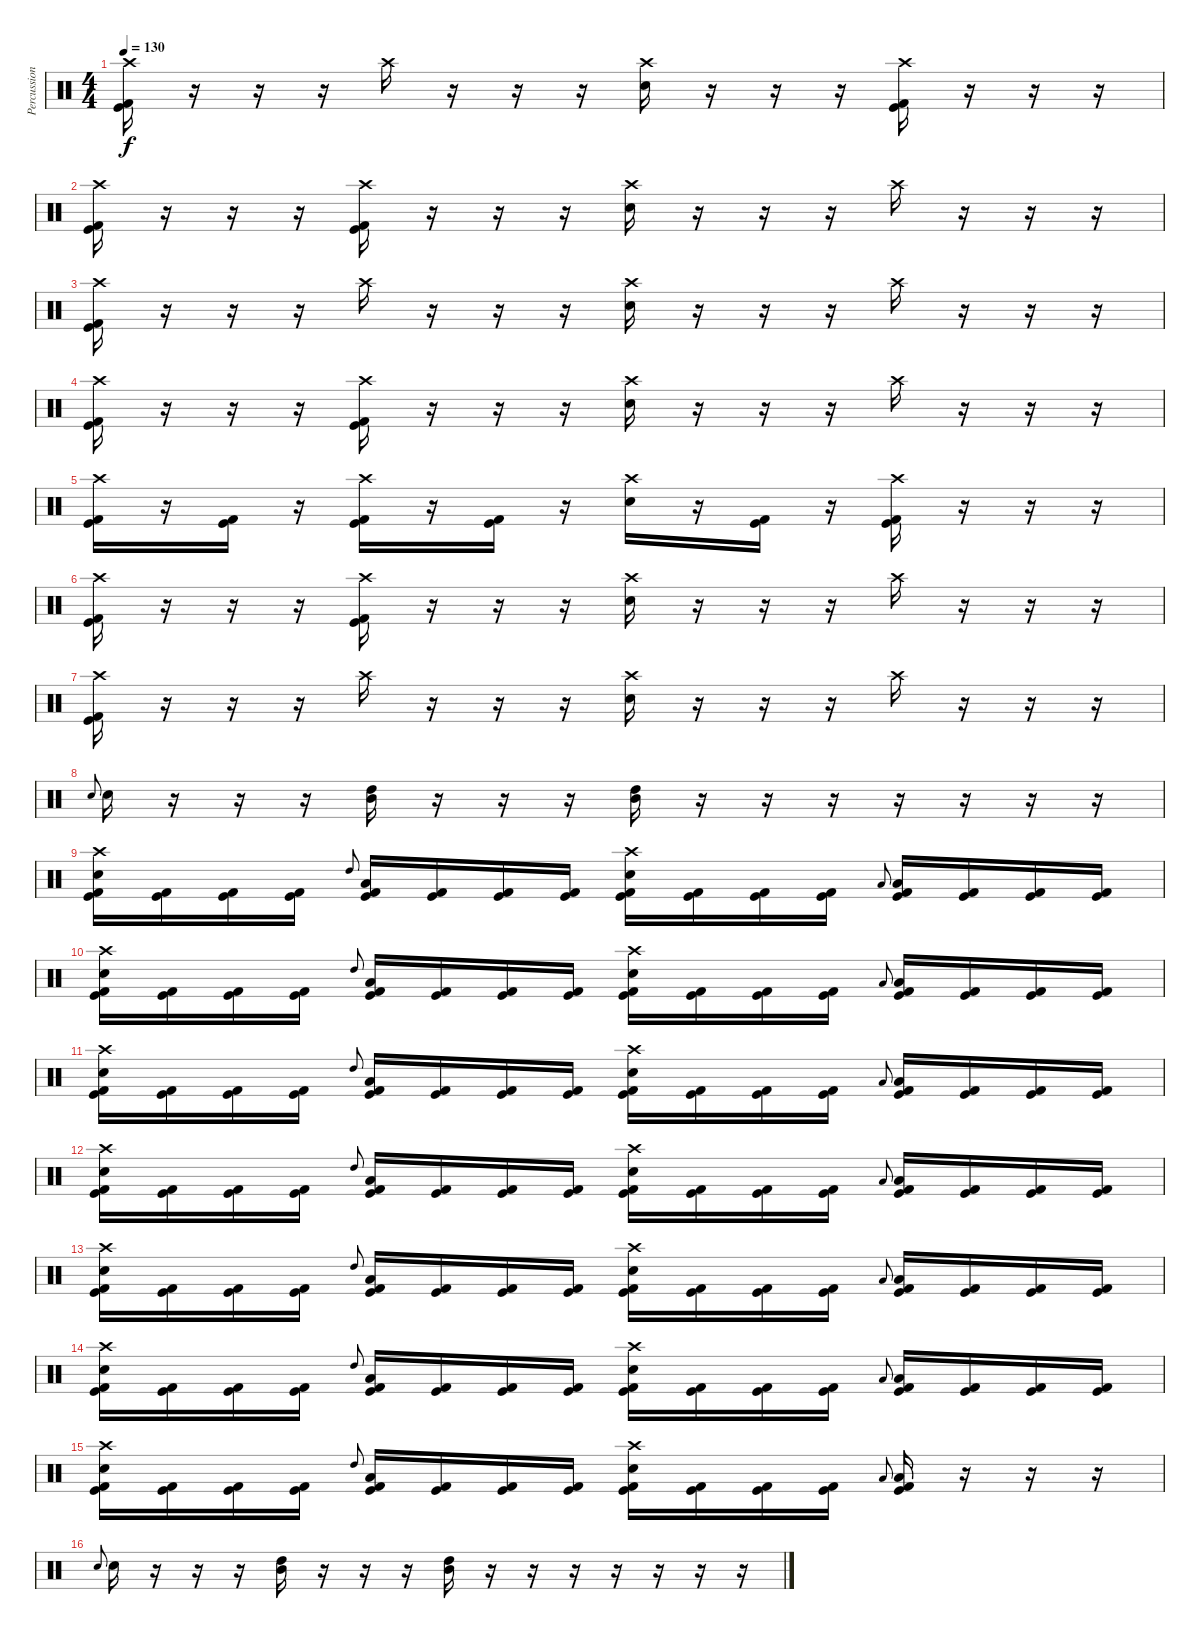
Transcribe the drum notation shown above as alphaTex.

\track ("Percussion" "Percussion") {instrument percussion}
\staff {score}
\articulation defaults
\ts (4 4)
\tempo 130
\clef neutral
\ks c
("Crash high (hit)" "Kick (hit)" "Kick (hit) 2").16{dy f} r.16 r.16 r.16 "Crash high (hit)".16 r.16 r.16 r.16 ("Crash high (hit)" "Electric Snare (hit)").16 r.16 r.16 r.16 ("Crash high (hit)" "Kick (hit)" "Kick (hit) 2").16 r.16 r.16 r.16 |
("Crash high (hit)" "Kick (hit)" "Kick (hit) 2").16 r.16 r.16 r.16 ("Crash high (hit)" "Kick (hit)" "Kick (hit) 2").16 r.16 r.16 r.16 ("Crash high (hit)" "Electric Snare (hit)").16 r.16 r.16 r.16 "Crash high (hit)".16 r.16 r.16 r.16 |
("Crash high (hit)" "Kick (hit)" "Kick (hit) 2").16 r.16 r.16 r.16 "Crash high (hit)".16 r.16 r.16 r.16 ("Crash high (hit)" "Electric Snare (hit)").16 r.16 r.16 r.16 "Crash high (hit)".16 r.16 r.16 r.16 |
("Crash high (hit)" "Kick (hit)" "Kick (hit) 2").16 r.16 r.16 r.16 ("Crash high (hit)" "Kick (hit)" "Kick (hit) 2").16 r.16 r.16 r.16 ("Crash high (hit)" "Electric Snare (hit)").16 r.16 r.16 r.16 "Crash high (hit)".16 r.16 r.16 r.16 |
("Crash high (hit)" "Kick (hit)" "Kick (hit) 2").16 r.16 ("Kick (hit)" "Kick (hit) 2").16 r.16 ("Crash high (hit)" "Kick (hit)" "Kick (hit) 2").16 r.16 ("Kick (hit)" "Kick (hit) 2").16 r.16 ("Crash high (hit)" "Electric Snare (hit)").16 r.16 ("Kick (hit)" "Kick (hit) 2").16 r.16 ("Crash high (hit)" "Kick (hit)" "Kick (hit) 2").16 r.16 r.16 r.16 |
("Crash high (hit)" "Kick (hit)" "Kick (hit) 2").16 r.16 r.16 r.16 ("Crash high (hit)" "Kick (hit)" "Kick (hit) 2").16 r.16 r.16 r.16 ("Crash high (hit)" "Electric Snare (hit)").16 r.16 r.16 r.16 "Crash high (hit)".16 r.16 r.16 r.16 |
("Crash high (hit)" "Kick (hit)" "Kick (hit) 2").16 r.16 r.16 r.16 "Crash high (hit)".16 r.16 r.16 r.16 ("Crash high (hit)" "Electric Snare (hit)").16 r.16 r.16 r.16 "Crash high (hit)".16 r.16 r.16 r.16 |
"Electric Snare (hit)".8{gr onbeat} "Electric Snare (hit)".16 r.16 r.16 r.16 ("High Tom (hit)" "Mid Tom (hit)").16 r.16 r.16 r.16 ("High Tom (hit)" "Mid Tom (hit)").16 r.16 r.16 r.16 r.16 r.16 r.16 r.16 |
("Crash high (hit)" "Electric Snare (hit)" "Kick (hit)" "Kick (hit) 2").16 ("Kick (hit)" "Kick (hit) 2").16 ("Kick (hit)" "Kick (hit) 2").16 ("Kick (hit)" "Kick (hit) 2").16 "High Tom (hit)"{x}.8{gr onbeat} ("Low Tom (hit)" "Kick (hit)" "Kick (hit) 2").16 ("Kick (hit)" "Kick (hit) 2").16 ("Kick (hit)" "Kick (hit) 2").16 ("Kick (hit)" "Kick (hit) 2").16 ("Crash high (hit)" "Electric Snare (hit)" "Kick (hit)" "Kick (hit) 2").16 ("Kick (hit)" "Kick (hit) 2").16 ("Kick (hit)" "Kick (hit) 2").16 ("Kick (hit)" "Kick (hit) 2").16 "Low Tom (hit)"{x}.8{gr onbeat} ("Low Tom (hit)" "Kick (hit)" "Kick (hit) 2").16 ("Kick (hit)" "Kick (hit) 2").16 ("Kick (hit)" "Kick (hit) 2").16 ("Kick (hit)" "Kick (hit) 2").16 |
("Crash high (hit)" "Electric Snare (hit)" "Kick (hit)" "Kick (hit) 2").16 ("Kick (hit)" "Kick (hit) 2").16 ("Kick (hit)" "Kick (hit) 2").16 ("Kick (hit)" "Kick (hit) 2").16 "High Tom (hit)"{x}.8{gr onbeat} ("Low Tom (hit)" "Kick (hit)" "Kick (hit) 2").16 ("Kick (hit)" "Kick (hit) 2").16 ("Kick (hit)" "Kick (hit) 2").16 ("Kick (hit)" "Kick (hit) 2").16 ("Crash high (hit)" "Electric Snare (hit)" "Kick (hit)" "Kick (hit) 2").16 ("Kick (hit)" "Kick (hit) 2").16 ("Kick (hit)" "Kick (hit) 2").16 ("Kick (hit)" "Kick (hit) 2").16 "Low Tom (hit)"{x}.8{gr onbeat} ("Low Tom (hit)" "Kick (hit)" "Kick (hit) 2").16 ("Kick (hit)" "Kick (hit) 2").16 ("Kick (hit)" "Kick (hit) 2").16 ("Kick (hit)" "Kick (hit) 2").16 |
("Crash high (hit)" "Electric Snare (hit)" "Kick (hit)" "Kick (hit) 2").16 ("Kick (hit)" "Kick (hit) 2").16 ("Kick (hit)" "Kick (hit) 2").16 ("Kick (hit)" "Kick (hit) 2").16 "High Tom (hit)"{x}.8{gr onbeat} ("Low Tom (hit)" "Kick (hit)" "Kick (hit) 2").16 ("Kick (hit)" "Kick (hit) 2").16 ("Kick (hit)" "Kick (hit) 2").16 ("Kick (hit)" "Kick (hit) 2").16 ("Crash high (hit)" "Electric Snare (hit)" "Kick (hit)" "Kick (hit) 2").16 ("Kick (hit)" "Kick (hit) 2").16 ("Kick (hit)" "Kick (hit) 2").16 ("Kick (hit)" "Kick (hit) 2").16 "Low Tom (hit)"{x}.8{gr onbeat} ("Low Tom (hit)" "Kick (hit)" "Kick (hit) 2").16 ("Kick (hit)" "Kick (hit) 2").16 ("Kick (hit)" "Kick (hit) 2").16 ("Kick (hit)" "Kick (hit) 2").16 |
("Crash high (hit)" "Electric Snare (hit)" "Kick (hit)" "Kick (hit) 2").16 ("Kick (hit)" "Kick (hit) 2").16 ("Kick (hit)" "Kick (hit) 2").16 ("Kick (hit)" "Kick (hit) 2").16 "High Tom (hit)"{x}.8{gr onbeat} ("Low Tom (hit)" "Kick (hit)" "Kick (hit) 2").16 ("Kick (hit)" "Kick (hit) 2").16 ("Kick (hit)" "Kick (hit) 2").16 ("Kick (hit)" "Kick (hit) 2").16 ("Crash high (hit)" "Electric Snare (hit)" "Kick (hit)" "Kick (hit) 2").16 ("Kick (hit)" "Kick (hit) 2").16 ("Kick (hit)" "Kick (hit) 2").16 ("Kick (hit)" "Kick (hit) 2").16 "Low Tom (hit)"{x}.8{gr onbeat} ("Low Tom (hit)" "Kick (hit)" "Kick (hit) 2").16 ("Kick (hit)" "Kick (hit) 2").16 ("Kick (hit)" "Kick (hit) 2").16 ("Kick (hit)" "Kick (hit) 2").16 |
("Crash high (hit)" "Electric Snare (hit)" "Kick (hit)" "Kick (hit) 2").16 ("Kick (hit)" "Kick (hit) 2").16 ("Kick (hit)" "Kick (hit) 2").16 ("Kick (hit)" "Kick (hit) 2").16 "High Tom (hit)"{x}.8{gr onbeat} ("Low Tom (hit)" "Kick (hit)" "Kick (hit) 2").16 ("Kick (hit)" "Kick (hit) 2").16 ("Kick (hit)" "Kick (hit) 2").16 ("Kick (hit)" "Kick (hit) 2").16 ("Crash high (hit)" "Electric Snare (hit)" "Kick (hit)" "Kick (hit) 2").16 ("Kick (hit)" "Kick (hit) 2").16 ("Kick (hit)" "Kick (hit) 2").16 ("Kick (hit)" "Kick (hit) 2").16 "Low Tom (hit)"{x}.8{gr onbeat} ("Low Tom (hit)" "Kick (hit)" "Kick (hit) 2").16 ("Kick (hit)" "Kick (hit) 2").16 ("Kick (hit)" "Kick (hit) 2").16 ("Kick (hit)" "Kick (hit) 2").16 |
("Crash high (hit)" "Electric Snare (hit)" "Kick (hit)" "Kick (hit) 2").16 ("Kick (hit)" "Kick (hit) 2").16 ("Kick (hit)" "Kick (hit) 2").16 ("Kick (hit)" "Kick (hit) 2").16 "High Tom (hit)"{x}.8{gr onbeat} ("Low Tom (hit)" "Kick (hit)" "Kick (hit) 2").16 ("Kick (hit)" "Kick (hit) 2").16 ("Kick (hit)" "Kick (hit) 2").16 ("Kick (hit)" "Kick (hit) 2").16 ("Crash high (hit)" "Electric Snare (hit)" "Kick (hit)" "Kick (hit) 2").16 ("Kick (hit)" "Kick (hit) 2").16 ("Kick (hit)" "Kick (hit) 2").16 ("Kick (hit)" "Kick (hit) 2").16 "Low Tom (hit)"{x}.8{gr onbeat} ("Low Tom (hit)" "Kick (hit)" "Kick (hit) 2").16 ("Kick (hit)" "Kick (hit) 2").16 ("Kick (hit)" "Kick (hit) 2").16 ("Kick (hit)" "Kick (hit) 2").16 |
("Crash high (hit)" "Electric Snare (hit)" "Kick (hit)" "Kick (hit) 2").16 ("Kick (hit)" "Kick (hit) 2").16 ("Kick (hit)" "Kick (hit) 2").16 ("Kick (hit)" "Kick (hit) 2").16 "High Tom (hit)"{x}.8{gr onbeat} ("Low Tom (hit)" "Kick (hit)" "Kick (hit) 2").16 ("Kick (hit)" "Kick (hit) 2").16 ("Kick (hit)" "Kick (hit) 2").16 ("Kick (hit)" "Kick (hit) 2").16 ("Crash high (hit)" "Electric Snare (hit)" "Kick (hit)" "Kick (hit) 2").16 ("Kick (hit)" "Kick (hit) 2").16 ("Kick (hit)" "Kick (hit) 2").16 ("Kick (hit)" "Kick (hit) 2").16 "Low Tom (hit)"{x}.8{gr onbeat} ("Low Tom (hit)" "Kick (hit)" "Kick (hit) 2").16 r.16 r.16 r.16 |
"Electric Snare (hit)".8{gr onbeat} "Electric Snare (hit)".16 r.16 r.16 r.16 ("High Tom (hit)" "Mid Tom (hit)").16 r.16 r.16 r.16 ("High Tom (hit)" "Mid Tom (hit)").16 r.16 r.16 r.16 r.16 r.16 r.16 r.16
